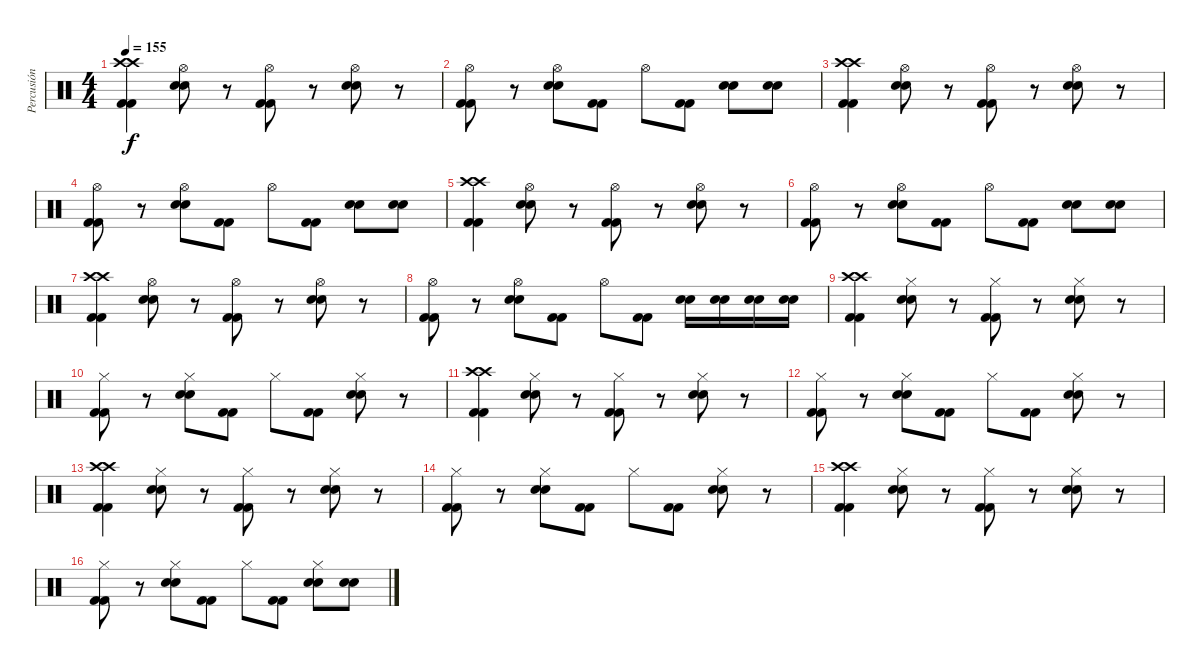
\track ("Percusión" "Percusión") {instrument percussion}
\staff {score}
\articulation defaults
\ts (4 4)
\tempo 155
\clef neutral
\ks c
("Crash high (hit)" "Crash high (hit)" "Kick (hit) 2" "Kick (hit) 2").4{dy f} ("Hi-Hat (open)" "Electric Snare (hit)" "Electric Snare (hit)").8 r.8 ("Hi-Hat (open)" "Kick (hit) 2" "Kick (hit) 2").8 r.8 ("Hi-Hat (open)" "Electric Snare (hit)" "Electric Snare (hit)").8 r.8 |
("Hi-Hat (open)" "Kick (hit) 2" "Kick (hit) 2").8 r.8 ("Hi-Hat (open)" "Electric Snare (hit)" "Electric Snare (hit)").8 ("Kick (hit) 2" "Kick (hit) 2").8 "Hi-Hat (open)".8 ("Kick (hit) 2" "Kick (hit) 2").8 ("Electric Snare (hit)" "Electric Snare (hit)").8 ("Electric Snare (hit)" "Electric Snare (hit)").8 |
("Crash high (hit)" "Crash high (hit)" "Kick (hit) 2" "Kick (hit) 2").4 ("Hi-Hat (open)" "Electric Snare (hit)" "Electric Snare (hit)").8 r.8 ("Hi-Hat (open)" "Kick (hit) 2" "Kick (hit) 2").8 r.8 ("Hi-Hat (open)" "Electric Snare (hit)" "Electric Snare (hit)").8 r.8 |
("Hi-Hat (open)" "Kick (hit) 2" "Kick (hit) 2").8 r.8 ("Hi-Hat (open)" "Electric Snare (hit)" "Electric Snare (hit)").8 ("Kick (hit) 2" "Kick (hit) 2").8 "Hi-Hat (open)".8 ("Kick (hit) 2" "Kick (hit) 2").8 ("Electric Snare (hit)" "Electric Snare (hit)").8 ("Electric Snare (hit)" "Electric Snare (hit)").8 |
("Crash high (hit)" "Crash high (hit)" "Kick (hit) 2" "Kick (hit) 2").4 ("Hi-Hat (open)" "Electric Snare (hit)" "Electric Snare (hit)").8 r.8 ("Hi-Hat (open)" "Kick (hit) 2" "Kick (hit) 2").8 r.8 ("Hi-Hat (open)" "Electric Snare (hit)" "Electric Snare (hit)").8 r.8 |
("Hi-Hat (open)" "Kick (hit) 2" "Kick (hit) 2").8 r.8 ("Hi-Hat (open)" "Electric Snare (hit)" "Electric Snare (hit)").8 ("Kick (hit) 2" "Kick (hit) 2").8 "Hi-Hat (open)".8 ("Kick (hit) 2" "Kick (hit) 2").8 ("Electric Snare (hit)" "Electric Snare (hit)").8 ("Electric Snare (hit)" "Electric Snare (hit)").8 |
("Crash high (hit)" "Crash high (hit)" "Kick (hit) 2" "Kick (hit) 2").4 ("Hi-Hat (open)" "Electric Snare (hit)" "Electric Snare (hit)").8 r.8 ("Hi-Hat (open)" "Kick (hit) 2" "Kick (hit) 2").8 r.8 ("Hi-Hat (open)" "Electric Snare (hit)" "Electric Snare (hit)").8 r.8 |
("Hi-Hat (open)" "Kick (hit) 2" "Kick (hit) 2").8 r.8 ("Hi-Hat (open)" "Electric Snare (hit)" "Electric Snare (hit)").8 ("Kick (hit) 2" "Kick (hit) 2").8 "Hi-Hat (open)".8 ("Kick (hit) 2" "Kick (hit) 2").8 ("Electric Snare (hit)" "Electric Snare (hit)").16 ("Electric Snare (hit)" "Electric Snare (hit)").16 ("Electric Snare (hit)" "Electric Snare (hit)").16 ("Electric Snare (hit)" "Electric Snare (hit)").16 |
("Crash high (hit)" "Crash high (hit)" "Kick (hit) 2" "Kick (hit) 2").4 ("Hi-Hat (closed)" "Electric Snare (hit)" "Electric Snare (hit)").8 r.8 ("Hi-Hat (closed)" "Kick (hit) 2" "Kick (hit) 2").8 r.8 ("Hi-Hat (closed)" "Electric Snare (hit)" "Electric Snare (hit)").8 r.8 |
("Hi-Hat (closed)" "Kick (hit) 2" "Kick (hit) 2").8 r.8 ("Hi-Hat (closed)" "Electric Snare (hit)" "Electric Snare (hit)").8 ("Kick (hit) 2" "Kick (hit) 2").8 "Hi-Hat (closed)".8 ("Kick (hit) 2" "Kick (hit) 2").8 ("Hi-Hat (closed)" "Electric Snare (hit)" "Electric Snare (hit)").8 r.8 |
("Crash high (hit)" "Crash high (hit)" "Kick (hit) 2" "Kick (hit) 2").4 ("Hi-Hat (closed)" "Electric Snare (hit)" "Electric Snare (hit)").8 r.8 ("Hi-Hat (closed)" "Kick (hit) 2" "Kick (hit) 2").8 r.8 ("Hi-Hat (closed)" "Electric Snare (hit)" "Electric Snare (hit)").8 r.8 |
("Hi-Hat (closed)" "Kick (hit) 2" "Kick (hit) 2").8 r.8 ("Hi-Hat (closed)" "Electric Snare (hit)" "Electric Snare (hit)").8 ("Kick (hit) 2" "Kick (hit) 2").8 "Hi-Hat (closed)".8 ("Kick (hit) 2" "Kick (hit) 2").8 ("Hi-Hat (closed)" "Electric Snare (hit)" "Electric Snare (hit)").8 r.8 |
("Crash high (hit)" "Crash high (hit)" "Kick (hit) 2" "Kick (hit) 2").4 ("Hi-Hat (closed)" "Electric Snare (hit)" "Electric Snare (hit)").8 r.8 ("Hi-Hat (closed)" "Kick (hit) 2" "Kick (hit) 2").8 r.8 ("Hi-Hat (closed)" "Electric Snare (hit)" "Electric Snare (hit)").8 r.8 |
("Hi-Hat (closed)" "Kick (hit) 2" "Kick (hit) 2").8 r.8 ("Hi-Hat (closed)" "Electric Snare (hit)" "Electric Snare (hit)").8 ("Kick (hit) 2" "Kick (hit) 2").8 "Hi-Hat (closed)".8 ("Kick (hit) 2" "Kick (hit) 2").8 ("Hi-Hat (closed)" "Electric Snare (hit)" "Electric Snare (hit)").8 r.8 |
("Crash high (hit)" "Crash high (hit)" "Kick (hit) 2" "Kick (hit) 2").4 ("Hi-Hat (closed)" "Electric Snare (hit)" "Electric Snare (hit)").8 r.8 ("Hi-Hat (closed)" "Kick (hit) 2" "Kick (hit) 2").8 r.8 ("Hi-Hat (closed)" "Electric Snare (hit)" "Electric Snare (hit)").8 r.8 |
("Hi-Hat (closed)" "Kick (hit) 2" "Kick (hit) 2").8 r.8 ("Hi-Hat (closed)" "Electric Snare (hit)" "Electric Snare (hit)").8 ("Kick (hit) 2" "Kick (hit) 2").8 "Hi-Hat (closed)".8 ("Kick (hit) 2" "Kick (hit) 2").8 ("Hi-Hat (closed)" "Electric Snare (hit)" "Electric Snare (hit)").8 ("Electric Snare (hit)" "Electric Snare (hit)").8
